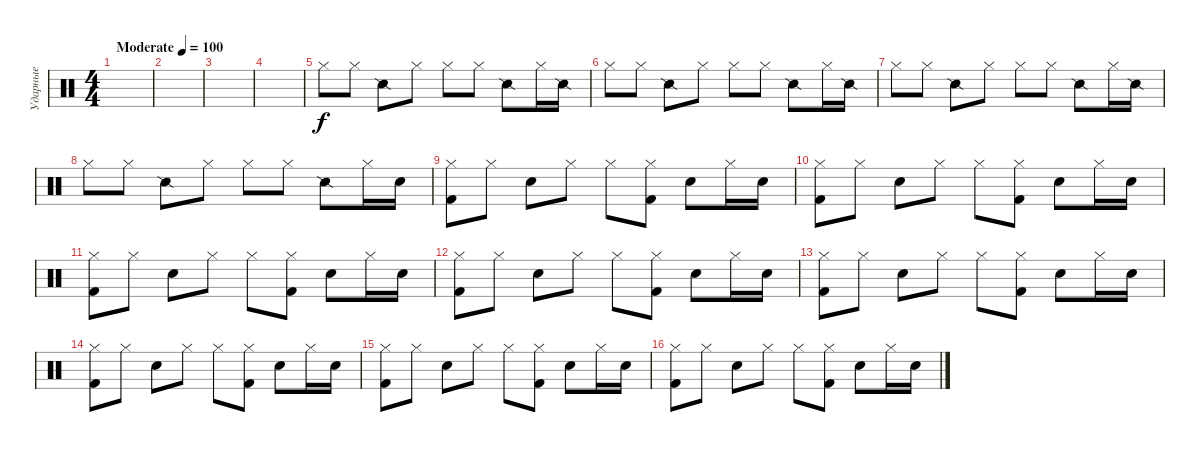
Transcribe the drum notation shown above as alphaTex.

\track ("Ударные" "Ударные") {instrument percussion}
\staff {score}
\articulation defaults
\ts (4 4)
\tempo (100 "Moderate")
\clef neutral
\ks c
|
|
|
|
"Hi-Hat (closed)".8 "Hi-Hat (closed)".8 "Snare (side stick) 2".8 "Hi-Hat (closed)".8 "Hi-Hat (closed)".8 "Hi-Hat (closed)".8 "Snare (side stick) 2".8 "Hi-Hat (closed)".16 "Snare (side stick) 2".16 |
"Hi-Hat (closed)".8 "Hi-Hat (closed)".8 "Snare (side stick) 2".8 "Hi-Hat (closed)".8 "Hi-Hat (closed)".8 "Hi-Hat (closed)".8 "Snare (side stick) 2".8 "Hi-Hat (closed)".16 "Snare (side stick) 2".16 |
"Hi-Hat (closed)".8 "Hi-Hat (closed)".8 "Snare (side stick) 2".8 "Hi-Hat (closed)".8 "Hi-Hat (closed)".8 "Hi-Hat (closed)".8 "Snare (side stick) 2".8 "Hi-Hat (closed)".16 "Snare (side stick) 2".16 |
"Hi-Hat (closed)".8 "Hi-Hat (closed)".8 "Snare (side stick) 2".8 "Hi-Hat (closed)".8 "Hi-Hat (closed)".8 "Hi-Hat (closed)".8 "Snare (side stick) 2".8 "Hi-Hat (closed)".16 "Electric Snare (hit)".16 |
("Hi-Hat (closed)" "Kick (hit) 2").8 "Hi-Hat (closed)".8 "Electric Snare (hit)".8 "Hi-Hat (closed)".8 "Hi-Hat (closed)".8 ("Hi-Hat (closed)" "Kick (hit) 2").8 "Electric Snare (hit)".8 "Hi-Hat (closed)".16 "Electric Snare (hit)".16 |
("Hi-Hat (closed)" "Kick (hit) 2").8 "Hi-Hat (closed)".8 "Electric Snare (hit)".8 "Hi-Hat (closed)".8 "Hi-Hat (closed)".8 ("Hi-Hat (closed)" "Kick (hit) 2").8 "Electric Snare (hit)".8 "Hi-Hat (closed)".16 "Electric Snare (hit)".16 |
("Hi-Hat (closed)" "Kick (hit) 2").8 "Hi-Hat (closed)".8 "Electric Snare (hit)".8 "Hi-Hat (closed)".8 "Hi-Hat (closed)".8 ("Hi-Hat (closed)" "Kick (hit) 2").8 "Electric Snare (hit)".8 "Hi-Hat (closed)".16 "Electric Snare (hit)".16 |
("Hi-Hat (closed)" "Kick (hit) 2").8 "Hi-Hat (closed)".8 "Electric Snare (hit)".8 "Hi-Hat (closed)".8 "Hi-Hat (closed)".8 ("Hi-Hat (closed)" "Kick (hit) 2").8 "Electric Snare (hit)".8 "Hi-Hat (closed)".16 "Electric Snare (hit)".16 |
("Hi-Hat (closed)" "Kick (hit) 2").8 "Hi-Hat (closed)".8 "Electric Snare (hit)".8 "Hi-Hat (closed)".8 "Hi-Hat (closed)".8 ("Hi-Hat (closed)" "Kick (hit) 2").8 "Electric Snare (hit)".8 "Hi-Hat (closed)".16 "Electric Snare (hit)".16 |
("Hi-Hat (closed)" "Kick (hit) 2").8 "Hi-Hat (closed)".8 "Electric Snare (hit)".8 "Hi-Hat (closed)".8 "Hi-Hat (closed)".8 ("Hi-Hat (closed)" "Kick (hit) 2").8 "Electric Snare (hit)".8 "Hi-Hat (closed)".16 "Electric Snare (hit)".16 |
("Hi-Hat (closed)" "Kick (hit) 2").8 "Hi-Hat (closed)".8 "Electric Snare (hit)".8 "Hi-Hat (closed)".8 "Hi-Hat (closed)".8 ("Hi-Hat (closed)" "Kick (hit) 2").8 "Electric Snare (hit)".8 "Hi-Hat (closed)".16 "Electric Snare (hit)".16 |
("Hi-Hat (closed)" "Kick (hit) 2").8 "Hi-Hat (closed)".8 "Electric Snare (hit)".8 "Hi-Hat (closed)".8 "Hi-Hat (closed)".8 ("Hi-Hat (closed)" "Kick (hit) 2").8 "Electric Snare (hit)".8 "Hi-Hat (closed)".16 "Electric Snare (hit)".16
